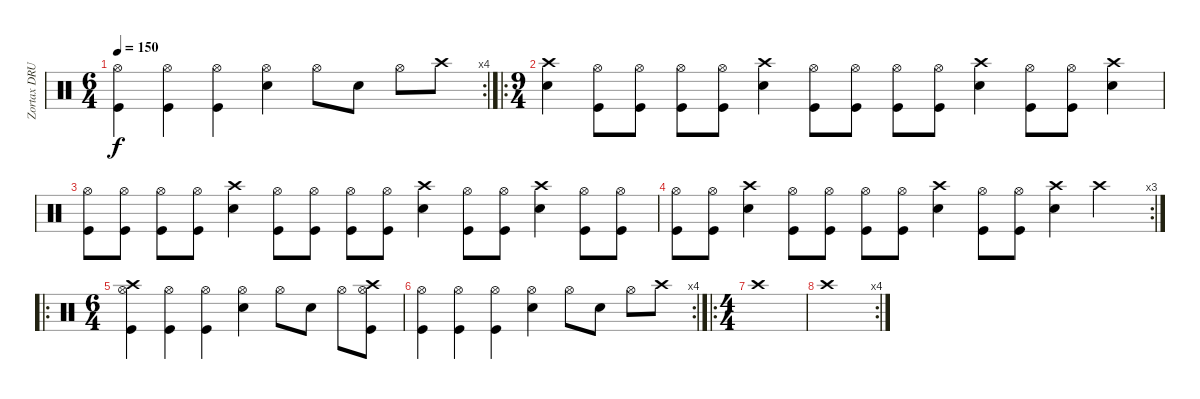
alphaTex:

\track ("Zortax DRUMS" "Zortax DRU") {instrument percussion}
\staff {score}
\articulation defaults
\rc 4
\ts (6 4)
\tempo 150
\clef neutral
\ks c
("Kick (hit)" "Hi-Hat (open)").4{dy f} ("Kick (hit)" "Hi-Hat (open)").4 ("Kick (hit)" "Hi-Hat (open)").4 ("Hi-Hat (open)" "Snare (hit) 2").4 "Hi-Hat (open)".8 "Snare (hit) 2".8 "Hi-Hat (open)".8 "Crash high (hit)".8 |
\ro
\ts (9 4)
("Snare (hit) 2" "Crash high (hit)").4 ("Kick (hit)" "Hi-Hat (open)").8 ("Kick (hit)" "Hi-Hat (open)").8 ("Kick (hit)" "Hi-Hat (open)").8 ("Kick (hit)" "Hi-Hat (open)").8 ("Snare (hit) 2" "Crash high (hit)").4 ("Kick (hit)" "Hi-Hat (open)").8 ("Kick (hit)" "Hi-Hat (open)").8 ("Kick (hit)" "Hi-Hat (open)").8 ("Kick (hit)" "Hi-Hat (open)").8 ("Snare (hit) 2" "Crash high (hit)").4 ("Kick (hit)" "Hi-Hat (open)").8 ("Kick (hit)" "Hi-Hat (open)").8 ("Snare (hit) 2" "Crash high (hit)").4 |
("Kick (hit)" "Hi-Hat (open)").8 ("Kick (hit)" "Hi-Hat (open)").8 ("Kick (hit)" "Hi-Hat (open)").8 ("Kick (hit)" "Hi-Hat (open)").8 ("Snare (hit) 2" "Crash high (hit)").4 ("Kick (hit)" "Hi-Hat (open)").8 ("Kick (hit)" "Hi-Hat (open)").8 ("Kick (hit)" "Hi-Hat (open)").8 ("Kick (hit)" "Hi-Hat (open)").8 ("Snare (hit) 2" "Crash high (hit)").4 ("Kick (hit)" "Hi-Hat (open)").8 ("Kick (hit)" "Hi-Hat (open)").8 ("Snare (hit) 2" "Crash high (hit)").4 ("Kick (hit)" "Hi-Hat (open)").8 ("Kick (hit)" "Hi-Hat (open)").8 |
\rc 3
("Kick (hit)" "Hi-Hat (open)").8 ("Kick (hit)" "Hi-Hat (open)").8 ("Snare (hit) 2" "Crash high (hit)").4 ("Kick (hit)" "Hi-Hat (open)").8 ("Kick (hit)" "Hi-Hat (open)").8 ("Kick (hit)" "Hi-Hat (open)").8 ("Kick (hit)" "Hi-Hat (open)").8 ("Snare (hit) 2" "Crash high (hit)").4 ("Kick (hit)" "Hi-Hat (open)").8 ("Kick (hit)" "Hi-Hat (open)").8 ("Snare (hit) 2" "Crash high (hit)").4 "Crash high (hit)".2 |
\ro
\ts (6 4)
("Kick (hit)" "Hi-Hat (open)" "Crash high (hit)").4 ("Kick (hit)" "Hi-Hat (open)").4 ("Kick (hit)" "Hi-Hat (open)").4 ("Hi-Hat (open)" "Snare (hit) 2").4 "Hi-Hat (open)".8 "Snare (hit) 2".8 "Hi-Hat (open)".8 ("Kick (hit)" "Hi-Hat (open)" "Crash high (hit)").8 |
\rc 4
("Kick (hit)" "Hi-Hat (open)").4 ("Kick (hit)" "Hi-Hat (open)").4 ("Kick (hit)" "Hi-Hat (open)").4 ("Hi-Hat (open)" "Snare (hit) 2").4 "Hi-Hat (open)".8 "Snare (hit) 2".8 "Hi-Hat (open)".8 "Crash high (hit)".8 |
\ro
\ts (4 4)
"Crash high (hit)".1 |
\rc 4 "Crash high (hit)".1
